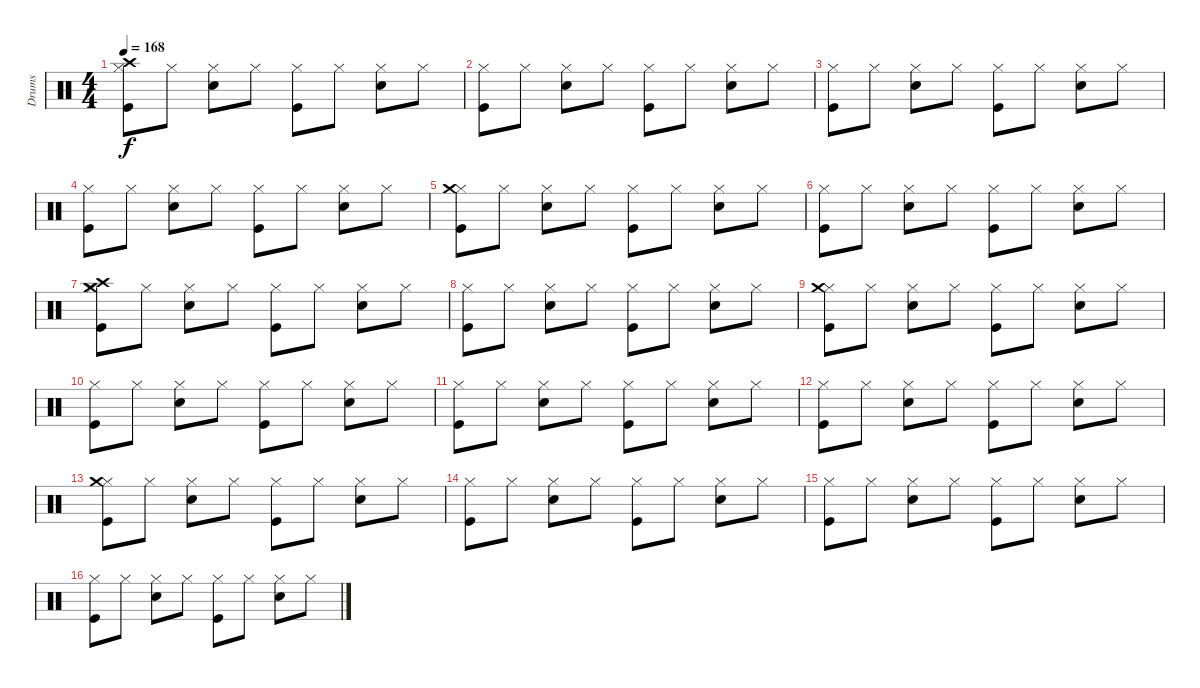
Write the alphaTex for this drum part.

\track ("Drums" "Drums") {instrument percussion}
\staff {score}
\articulation defaults
\ts (4 4)
\tempo 168
\clef neutral
\ks c
("Kick (hit)" "Hi-Hat (closed)" "Crash high (hit)").8{dy f} "Hi-Hat (closed)".8 ("Snare (hit) 2" "Hi-Hat (closed)").8 "Hi-Hat (closed)".8 ("Kick (hit)" "Hi-Hat (closed)").8 "Hi-Hat (closed)".8 ("Snare (hit) 2" "Hi-Hat (closed)").8 "Hi-Hat (closed)".8 |
("Kick (hit)" "Hi-Hat (closed)").8 "Hi-Hat (closed)".8 ("Snare (hit) 2" "Hi-Hat (closed)").8 "Hi-Hat (closed)".8 ("Kick (hit)" "Hi-Hat (closed)").8 "Hi-Hat (closed)".8 ("Snare (hit) 2" "Hi-Hat (closed)").8 "Hi-Hat (closed)".8 |
("Kick (hit)" "Hi-Hat (closed)").8 "Hi-Hat (closed)".8 ("Snare (hit) 2" "Hi-Hat (closed)").8 "Hi-Hat (closed)".8 ("Kick (hit)" "Hi-Hat (closed)").8 "Hi-Hat (closed)".8 ("Snare (hit) 2" "Hi-Hat (closed)").8 "Hi-Hat (closed)".8 |
("Kick (hit)" "Hi-Hat (closed)").8 "Hi-Hat (closed)".8 ("Snare (hit) 2" "Hi-Hat (closed)").8 "Hi-Hat (closed)".8 ("Kick (hit)" "Hi-Hat (closed)").8 "Hi-Hat (closed)".8 ("Snare (hit) 2" "Hi-Hat (closed)").8 "Hi-Hat (closed)".8 |
("Kick (hit)" "Hi-Hat (closed)" "Crash medium (hit)").8 "Hi-Hat (closed)".8 ("Snare (hit) 2" "Hi-Hat (closed)").8 "Hi-Hat (closed)".8 ("Kick (hit)" "Hi-Hat (closed)").8 "Hi-Hat (closed)".8 ("Snare (hit) 2" "Hi-Hat (closed)").8 "Hi-Hat (closed)".8 |
("Kick (hit)" "Hi-Hat (closed)").8 "Hi-Hat (closed)".8 ("Snare (hit) 2" "Hi-Hat (closed)").8 "Hi-Hat (closed)".8 ("Kick (hit)" "Hi-Hat (closed)").8 "Hi-Hat (closed)".8 ("Snare (hit) 2" "Hi-Hat (closed)").8 "Hi-Hat (closed)".8 |
("Kick (hit)" "Hi-Hat (closed)" "Crash high (hit)" "Crash medium (hit)").8 "Hi-Hat (closed)".8 ("Snare (hit) 2" "Hi-Hat (closed)").8 "Hi-Hat (closed)".8 ("Kick (hit)" "Hi-Hat (closed)").8 "Hi-Hat (closed)".8 ("Snare (hit) 2" "Hi-Hat (closed)").8 "Hi-Hat (closed)".8 |
("Kick (hit)" "Hi-Hat (closed)").8 "Hi-Hat (closed)".8 ("Snare (hit) 2" "Hi-Hat (closed)").8 "Hi-Hat (closed)".8 ("Kick (hit)" "Hi-Hat (closed)").8 "Hi-Hat (closed)".8 ("Snare (hit) 2" "Hi-Hat (closed)").8 "Hi-Hat (closed)".8 |
("Kick (hit)" "Hi-Hat (closed)" "Crash medium (hit)").8 "Hi-Hat (closed)".8 ("Snare (hit) 2" "Hi-Hat (closed)").8 "Hi-Hat (closed)".8 ("Kick (hit)" "Hi-Hat (closed)").8 "Hi-Hat (closed)".8 ("Snare (hit) 2" "Hi-Hat (closed)").8 "Hi-Hat (closed)".8 |
("Kick (hit)" "Hi-Hat (closed)").8 "Hi-Hat (closed)".8 ("Snare (hit) 2" "Hi-Hat (closed)").8 "Hi-Hat (closed)".8 ("Kick (hit)" "Hi-Hat (closed)").8 "Hi-Hat (closed)".8 ("Snare (hit) 2" "Hi-Hat (closed)").8 "Hi-Hat (closed)".8 |
("Kick (hit)" "Hi-Hat (closed)").8 "Hi-Hat (closed)".8 ("Snare (hit) 2" "Hi-Hat (closed)").8 "Hi-Hat (closed)".8 ("Kick (hit)" "Hi-Hat (closed)").8 "Hi-Hat (closed)".8 ("Snare (hit) 2" "Hi-Hat (closed)").8 "Hi-Hat (closed)".8 |
("Kick (hit)" "Hi-Hat (closed)").8 "Hi-Hat (closed)".8 ("Snare (hit) 2" "Hi-Hat (closed)").8 "Hi-Hat (closed)".8 ("Kick (hit)" "Hi-Hat (closed)").8 "Hi-Hat (closed)".8 ("Snare (hit) 2" "Hi-Hat (closed)").8 "Hi-Hat (closed)".8 |
("Kick (hit)" "Hi-Hat (closed)" "Crash medium (hit)").8 "Hi-Hat (closed)".8 ("Snare (hit) 2" "Hi-Hat (closed)").8 "Hi-Hat (closed)".8 ("Kick (hit)" "Hi-Hat (closed)").8 "Hi-Hat (closed)".8 ("Snare (hit) 2" "Hi-Hat (closed)").8 "Hi-Hat (closed)".8 |
("Kick (hit)" "Hi-Hat (closed)").8 "Hi-Hat (closed)".8 ("Snare (hit) 2" "Hi-Hat (closed)").8 "Hi-Hat (closed)".8 ("Kick (hit)" "Hi-Hat (closed)").8 "Hi-Hat (closed)".8 ("Snare (hit) 2" "Hi-Hat (closed)").8 "Hi-Hat (closed)".8 |
("Kick (hit)" "Hi-Hat (closed)").8 "Hi-Hat (closed)".8 ("Snare (hit) 2" "Hi-Hat (closed)").8 "Hi-Hat (closed)".8 ("Kick (hit)" "Hi-Hat (closed)").8 "Hi-Hat (closed)".8 ("Snare (hit) 2" "Hi-Hat (closed)").8 "Hi-Hat (closed)".8 |
("Kick (hit)" "Hi-Hat (closed)").8 "Hi-Hat (closed)".8 ("Snare (hit) 2" "Hi-Hat (closed)").8 "Hi-Hat (closed)".8 ("Kick (hit)" "Hi-Hat (closed)").8 "Hi-Hat (closed)".8 ("Snare (hit) 2" "Hi-Hat (closed)").8 "Hi-Hat (closed)".8
